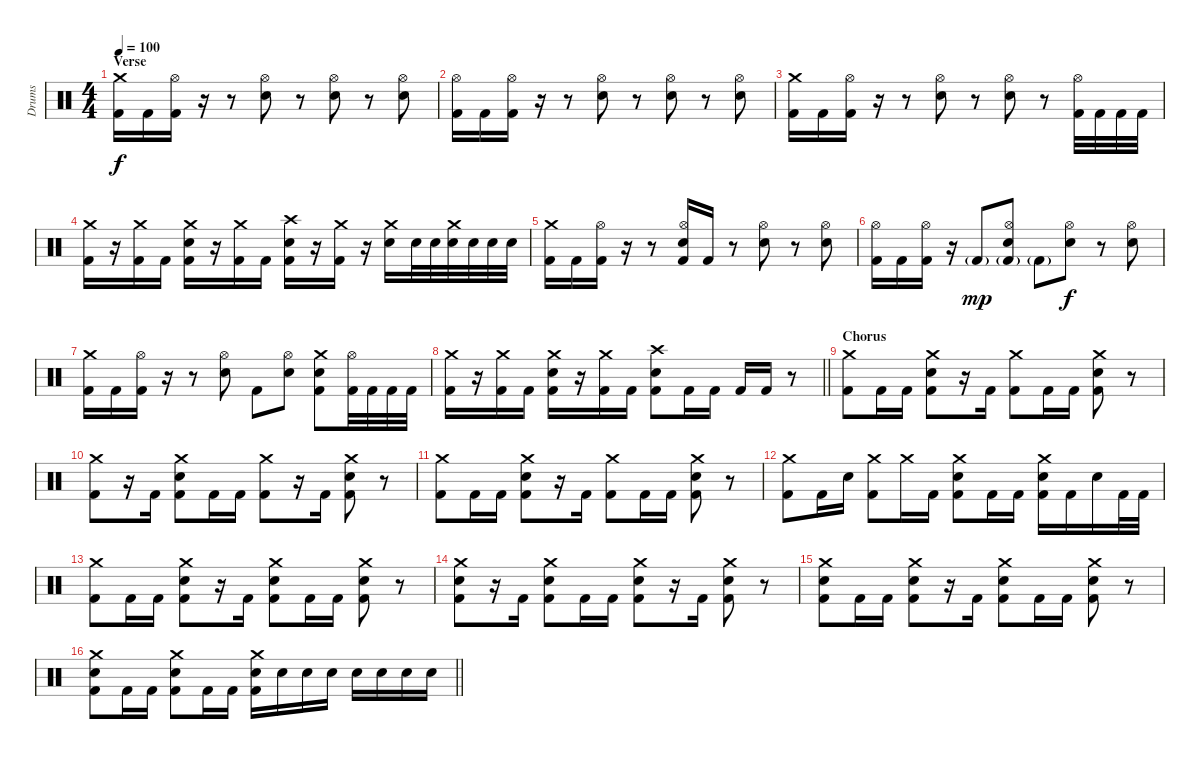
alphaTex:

\track ("Drums" "Drums") {instrument percussion}
\staff {score}
\articulation defaults
\ts (4 4)
\section ("" "Verse")
\tempo 100
\clef neutral
\ks c
("Crash medium (hit)" "Kick (hit) 2").16{dy f} "Kick (hit) 2".16 ("Hi-Hat (open)" "Kick (hit) 2").16 r.16 r.8 ("Hi-Hat (open)" "Electric Snare (hit)").8 r.8 ("Hi-Hat (open)" "Electric Snare (hit)").8 r.8 ("Hi-Hat (open)" "Electric Snare (hit)").8 |
("Hi-Hat (open)" "Kick (hit) 2").16 "Kick (hit) 2".16 ("Hi-Hat (open)" "Kick (hit) 2").16 r.16 r.8 ("Hi-Hat (open)" "Electric Snare (hit)").8 r.8 ("Hi-Hat (open)" "Electric Snare (hit)").8 r.8 ("Hi-Hat (open)" "Electric Snare (hit)").8 |
("Crash medium (hit)" "Kick (hit) 2").16 "Kick (hit) 2".16 ("Hi-Hat (open)" "Kick (hit) 2").16 r.16 r.8 ("Hi-Hat (open)" "Electric Snare (hit)").8 r.8 ("Hi-Hat (open)" "Electric Snare (hit)").8 r.8 ("Hi-Hat (open)" "Kick (hit) 2").32 "Kick (hit) 2".32 "Kick (hit) 2".32 "Kick (hit) 2".32 |
("Crash medium (hit)" "Kick (hit) 2").16 r.16 ("Crash medium (hit)" "Kick (hit) 2").16 "Kick (hit) 2".16 ("Crash medium (hit)" "Electric Snare (hit)" "Kick (hit) 2").16 r.16 ("Crash medium (hit)" "Kick (hit) 2").16 "Kick (hit) 2".16 ("Crash high (hit)" "Electric Snare (hit)" "Kick (hit) 2").16 r.16 ("Crash medium (hit)" "Kick (hit) 2").16 r.16 ("Crash medium (hit)" "Electric Snare (hit)").16 "Electric Snare (hit)".32 "Electric Snare (hit)".32 ("Crash medium (hit)" "Electric Snare (hit)").32 "Electric Snare (hit)".32 "Electric Snare (hit)".32 "Electric Snare (hit)".32 |
("Crash medium (hit)" "Kick (hit) 2").16 "Kick (hit) 2".16 ("Hi-Hat (open)" "Kick (hit) 2").16 r.16 r.8 ("Hi-Hat (open)" "Electric Snare (hit)" "Kick (hit) 2").16 "Kick (hit) 2".16 r.8 ("Hi-Hat (open)" "Electric Snare (hit)").8 r.8 ("Hi-Hat (open)" "Electric Snare (hit)").8 |
("Hi-Hat (open)" "Kick (hit) 2").16 "Kick (hit) 2".16 ("Hi-Hat (open)" "Kick (hit) 2").16 r.16 "Kick (hit) 2"{g}.8{dy mp} ("Hi-Hat (open)" "Electric Snare (hit)" "Kick (hit) 2"{g}).8 "Kick (hit) 2"{g}.8 ("Hi-Hat (open)" "Electric Snare (hit)").8{dy f} r.8 ("Hi-Hat (open)" "Electric Snare (hit)").8 |
("Crash medium (hit)" "Kick (hit) 2").16 "Kick (hit) 2".16 ("Hi-Hat (open)" "Kick (hit) 2").16 r.16 r.8 ("Hi-Hat (open)" "Electric Snare (hit)").8 "Kick (hit) 2".8 ("Hi-Hat (open)" "Electric Snare (hit)").8 ("Crash medium (hit)" "Electric Snare (hit)" "Kick (hit) 2").8 ("Hi-Hat (open)" "Kick (hit) 2").32 "Kick (hit) 2".32 "Kick (hit) 2".32 "Kick (hit) 2".32 |
\barLineRight lightlight
("Crash medium (hit)" "Kick (hit) 2").16 r.16 ("Crash medium (hit)" "Kick (hit) 2").16 "Kick (hit) 2".16 ("Crash medium (hit)" "Electric Snare (hit)" "Kick (hit) 2").16 r.16 ("Crash medium (hit)" "Kick (hit) 2").16 "Kick (hit) 2".16 ("Crash high (hit)" "Electric Snare (hit)" "Kick (hit) 2").8 "Kick (hit) 2".16 "Kick (hit) 2".16 "Kick (hit) 2".16 "Kick (hit) 2".16 r.8 |
\section ("" "Chorus")
("Crash medium (hit)" "Kick (hit) 2").8 "Kick (hit) 2".16 "Kick (hit) 2".16 ("Crash medium (hit)" "Electric Snare (hit)" "Kick (hit) 2").8 r.16 "Kick (hit) 2".16 ("Crash medium (hit)" "Kick (hit) 2").8 "Kick (hit) 2".16 "Kick (hit) 2".16 ("Crash medium (hit)" "Electric Snare (hit)" "Kick (hit) 2").8 r.8 |
("Crash medium (hit)" "Kick (hit) 2").8 r.16 "Kick (hit) 2".16 ("Crash medium (hit)" "Electric Snare (hit)" "Kick (hit) 2").8 "Kick (hit) 2".16 "Kick (hit) 2".16 ("Crash medium (hit)" "Kick (hit) 2").8 r.16 "Kick (hit) 2".16 ("Crash medium (hit)" "Electric Snare (hit)" "Kick (hit) 2").8 r.8 |
("Crash medium (hit)" "Kick (hit) 2").8 "Kick (hit) 2".16 "Kick (hit) 2".16 ("Crash medium (hit)" "Electric Snare (hit)" "Kick (hit) 2").8 r.16 "Kick (hit) 2".16 ("Crash medium (hit)" "Kick (hit) 2").8 "Kick (hit) 2".16 "Kick (hit) 2".16 ("Crash medium (hit)" "Electric Snare (hit)" "Kick (hit) 2").8 r.8 |
("Crash medium (hit)" "Kick (hit) 2").8 "Kick (hit) 2".16 "Electric Snare (hit)".16 ("Crash medium (hit)" "Kick (hit) 2").8 "Crash medium (hit)".16 "Kick (hit) 2".16 ("Crash medium (hit)" "Electric Snare (hit)" "Kick (hit) 2").8 "Kick (hit) 2".16 "Kick (hit) 2".16 ("Crash medium (hit)" "Electric Snare (hit)" "Kick (hit) 2").16 "Kick (hit) 2".16 "Electric Snare (hit)".16 "Kick (hit) 2".32 "Kick (hit) 2".32 |
("Crash medium (hit)" "Kick (hit) 2").8 "Kick (hit) 2".16 "Kick (hit) 2".16 ("Crash medium (hit)" "Electric Snare (hit)" "Kick (hit) 2").8 r.16 "Kick (hit) 2".16 ("Crash medium (hit)" "Electric Snare (hit)" "Kick (hit) 2").8 "Kick (hit) 2".16 "Kick (hit) 2".16 ("Crash medium (hit)" "Electric Snare (hit)" "Kick (hit) 2").8 r.8 |
("Crash medium (hit)" "Electric Snare (hit)" "Kick (hit) 2").8 r.16 "Kick (hit) 2".16 ("Crash medium (hit)" "Electric Snare (hit)" "Kick (hit) 2").8 "Kick (hit) 2".16 "Kick (hit) 2".16 ("Crash medium (hit)" "Electric Snare (hit)" "Kick (hit) 2").8 r.16 "Kick (hit) 2".16 ("Crash medium (hit)" "Electric Snare (hit)" "Kick (hit) 2").8 r.8 |
("Crash medium (hit)" "Electric Snare (hit)" "Kick (hit) 2").8 "Kick (hit) 2".16 "Kick (hit) 2".16 ("Crash medium (hit)" "Electric Snare (hit)" "Kick (hit) 2").8 r.16 "Kick (hit) 2".16 ("Crash medium (hit)" "Electric Snare (hit)" "Kick (hit) 2").8 "Kick (hit) 2".16 "Kick (hit) 2".16 ("Crash medium (hit)" "Electric Snare (hit)" "Kick (hit) 2").8 r.8 |
\barLineRight lightlight
("Crash medium (hit)" "Electric Snare (hit)" "Kick (hit) 2").8 "Kick (hit) 2".16 "Kick (hit) 2".16 ("Crash medium (hit)" "Electric Snare (hit)" "Kick (hit) 2").8 "Kick (hit) 2".16 "Kick (hit) 2".16 ("Crash medium (hit)" "Electric Snare (hit)" "Kick (hit) 2").16 "Electric Snare (hit)".16 "Electric Snare (hit)".16 "Electric Snare (hit)".16 "Electric Snare (hit)".16 "Electric Snare (hit)".16 "Electric Snare (hit)".16 "Electric Snare (hit)".16
